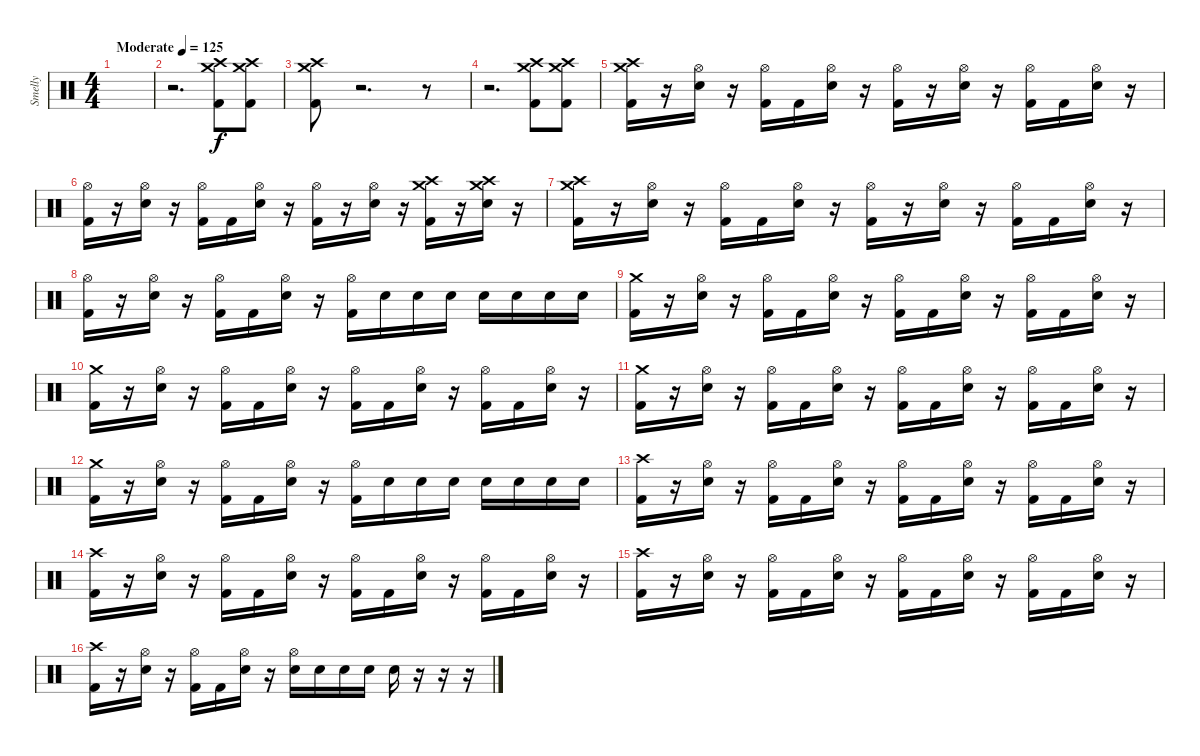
\track ("Smelly" "Smelly") {instrument percussion}
\staff {score}
\articulation defaults
\ts (4 4)
\tempo (125 "Moderate")
\clef neutral
\ks c
|
r.2{d} ("Crash high (hit)" "Crash medium (hit)" "Kick (hit) 2").8 ("Crash high (hit)" "Crash medium (hit)" "Kick (hit) 2").8 |
("Crash high (hit)" "Crash medium (hit)" "Kick (hit) 2").8 r.2{d} r.8 |
r.2{d} ("Crash high (hit)" "Crash medium (hit)" "Kick (hit) 2").8 ("Crash high (hit)" "Crash medium (hit)" "Kick (hit) 2").8 |
("Crash high (hit)" "Crash medium (hit)" "Kick (hit) 2").16 r.16 ("Hi-Hat (open)" "Electric Snare (hit)").16 r.16 ("Hi-Hat (open)" "Kick (hit) 2").16 "Kick (hit) 2".16 ("Hi-Hat (open)" "Electric Snare (hit)").16 r.16 ("Hi-Hat (open)" "Kick (hit) 2").16 r.16 ("Hi-Hat (open)" "Electric Snare (hit)").16 r.16 ("Hi-Hat (open)" "Kick (hit) 2").16 "Kick (hit) 2".16 ("Hi-Hat (open)" "Electric Snare (hit)").16 r.16 |
("Hi-Hat (open)" "Kick (hit) 2").16 r.16 ("Hi-Hat (open)" "Electric Snare (hit)").16 r.16 ("Hi-Hat (open)" "Kick (hit) 2").16 "Kick (hit) 2".16 ("Hi-Hat (open)" "Electric Snare (hit)").16 r.16 ("Hi-Hat (open)" "Kick (hit) 2").16 r.16 ("Hi-Hat (open)" "Electric Snare (hit)").16 r.16 ("Crash high (hit)" "Crash medium (hit)" "Kick (hit) 2").16 r.16 ("Crash high (hit)" "Crash medium (hit)" "Electric Snare (hit)").16 r.16 |
("Crash high (hit)" "Crash medium (hit)" "Kick (hit) 2").16 r.16 ("Hi-Hat (open)" "Electric Snare (hit)").16 r.16 ("Hi-Hat (open)" "Kick (hit) 2").16 "Kick (hit) 2".16 ("Hi-Hat (open)" "Electric Snare (hit)").16 r.16 ("Hi-Hat (open)" "Kick (hit) 2").16 r.16 ("Hi-Hat (open)" "Electric Snare (hit)").16 r.16 ("Hi-Hat (open)" "Kick (hit) 2").16 "Kick (hit) 2".16 ("Hi-Hat (open)" "Electric Snare (hit)").16 r.16 |
("Hi-Hat (open)" "Kick (hit) 2").16 r.16 ("Hi-Hat (open)" "Electric Snare (hit)").16 r.16 ("Hi-Hat (open)" "Kick (hit) 2").16 "Kick (hit) 2".16 ("Hi-Hat (open)" "Electric Snare (hit)").16 r.16 ("Hi-Hat (open)" "Kick (hit) 2").16 "Electric Snare (hit)".16 "Electric Snare (hit)".16 "Electric Snare (hit)".16 "Electric Snare (hit)".16 "Electric Snare (hit)".16 "Electric Snare (hit)".16 "Electric Snare (hit)".16 |
("Crash medium (hit)" "Kick (hit) 2").16 r.16 ("Hi-Hat (open)" "Electric Snare (hit)").16 r.16 ("Hi-Hat (open)" "Kick (hit) 2").16 "Kick (hit) 2".16 ("Hi-Hat (open)" "Electric Snare (hit)").16 r.16 ("Hi-Hat (open)" "Kick (hit) 2").16 "Kick (hit) 2".16 ("Hi-Hat (open)" "Electric Snare (hit)").16 r.16 ("Hi-Hat (open)" "Kick (hit) 2").16 "Kick (hit) 2".16 ("Hi-Hat (open)" "Electric Snare (hit)").16 r.16 |
("Crash medium (hit)" "Kick (hit) 2").16 r.16 ("Hi-Hat (open)" "Electric Snare (hit)").16 r.16 ("Hi-Hat (open)" "Kick (hit) 2").16 "Kick (hit) 2".16 ("Hi-Hat (open)" "Electric Snare (hit)").16 r.16 ("Hi-Hat (open)" "Kick (hit) 2").16 "Kick (hit) 2".16 ("Hi-Hat (open)" "Electric Snare (hit)").16 r.16 ("Hi-Hat (open)" "Kick (hit) 2").16 "Kick (hit) 2".16 ("Hi-Hat (open)" "Electric Snare (hit)").16 r.16 |
("Crash medium (hit)" "Kick (hit) 2").16 r.16 ("Hi-Hat (open)" "Electric Snare (hit)").16 r.16 ("Hi-Hat (open)" "Kick (hit) 2").16 "Kick (hit) 2".16 ("Hi-Hat (open)" "Electric Snare (hit)").16 r.16 ("Hi-Hat (open)" "Kick (hit) 2").16 "Kick (hit) 2".16 ("Hi-Hat (open)" "Electric Snare (hit)").16 r.16 ("Hi-Hat (open)" "Kick (hit) 2").16 "Kick (hit) 2".16 ("Hi-Hat (open)" "Electric Snare (hit)").16 r.16 |
("Crash medium (hit)" "Kick (hit) 2").16 r.16 ("Hi-Hat (open)" "Electric Snare (hit)").16 r.16 ("Hi-Hat (open)" "Kick (hit) 2").16 "Kick (hit) 2".16 ("Hi-Hat (open)" "Electric Snare (hit)").16 r.16 ("Hi-Hat (open)" "Kick (hit) 2").16 "Electric Snare (hit)".16 "Electric Snare (hit)".16 "Electric Snare (hit)".16 "Electric Snare (hit)".16 "Electric Snare (hit)".16 "Electric Snare (hit)".16 "Electric Snare (hit)".16 |
("Crash high (hit)" "Kick (hit) 2").16 r.16 ("Hi-Hat (open)" "Electric Snare (hit)").16 r.16 ("Hi-Hat (open)" "Kick (hit) 2").16 "Kick (hit) 2".16 ("Hi-Hat (open)" "Electric Snare (hit)").16 r.16 ("Hi-Hat (open)" "Kick (hit) 2").16 "Kick (hit) 2".16 ("Hi-Hat (open)" "Electric Snare (hit)").16 r.16 ("Hi-Hat (open)" "Kick (hit) 2").16 "Kick (hit) 2".16 ("Hi-Hat (open)" "Electric Snare (hit)").16 r.16 |
("Crash high (hit)" "Kick (hit) 2").16 r.16 ("Hi-Hat (open)" "Electric Snare (hit)").16 r.16 ("Hi-Hat (open)" "Kick (hit) 2").16 "Kick (hit) 2".16 ("Hi-Hat (open)" "Electric Snare (hit)").16 r.16 ("Hi-Hat (open)" "Kick (hit) 2").16 "Kick (hit) 2".16 ("Hi-Hat (open)" "Electric Snare (hit)").16 r.16 ("Hi-Hat (open)" "Kick (hit) 2").16 "Kick (hit) 2".16 ("Hi-Hat (open)" "Electric Snare (hit)").16 r.16 |
("Crash high (hit)" "Kick (hit) 2").16 r.16 ("Hi-Hat (open)" "Electric Snare (hit)").16 r.16 ("Hi-Hat (open)" "Kick (hit) 2").16 "Kick (hit) 2".16 ("Hi-Hat (open)" "Electric Snare (hit)").16 r.16 ("Hi-Hat (open)" "Kick (hit) 2").16 "Kick (hit) 2".16 ("Hi-Hat (open)" "Electric Snare (hit)").16 r.16 ("Hi-Hat (open)" "Kick (hit) 2").16 "Kick (hit) 2".16 ("Hi-Hat (open)" "Electric Snare (hit)").16 r.16 |
("Crash high (hit)" "Kick (hit) 2").16 r.16 ("Hi-Hat (open)" "Electric Snare (hit)").16 r.16 ("Hi-Hat (open)" "Kick (hit) 2").16 "Kick (hit) 2".16 ("Hi-Hat (open)" "Electric Snare (hit)").16 r.16 ("Hi-Hat (open)" "Electric Snare (hit)").16 "Electric Snare (hit)".16 "Electric Snare (hit)".16 "Electric Snare (hit)".16 "Electric Snare (hit)".16 r.16 r.16 r.16
